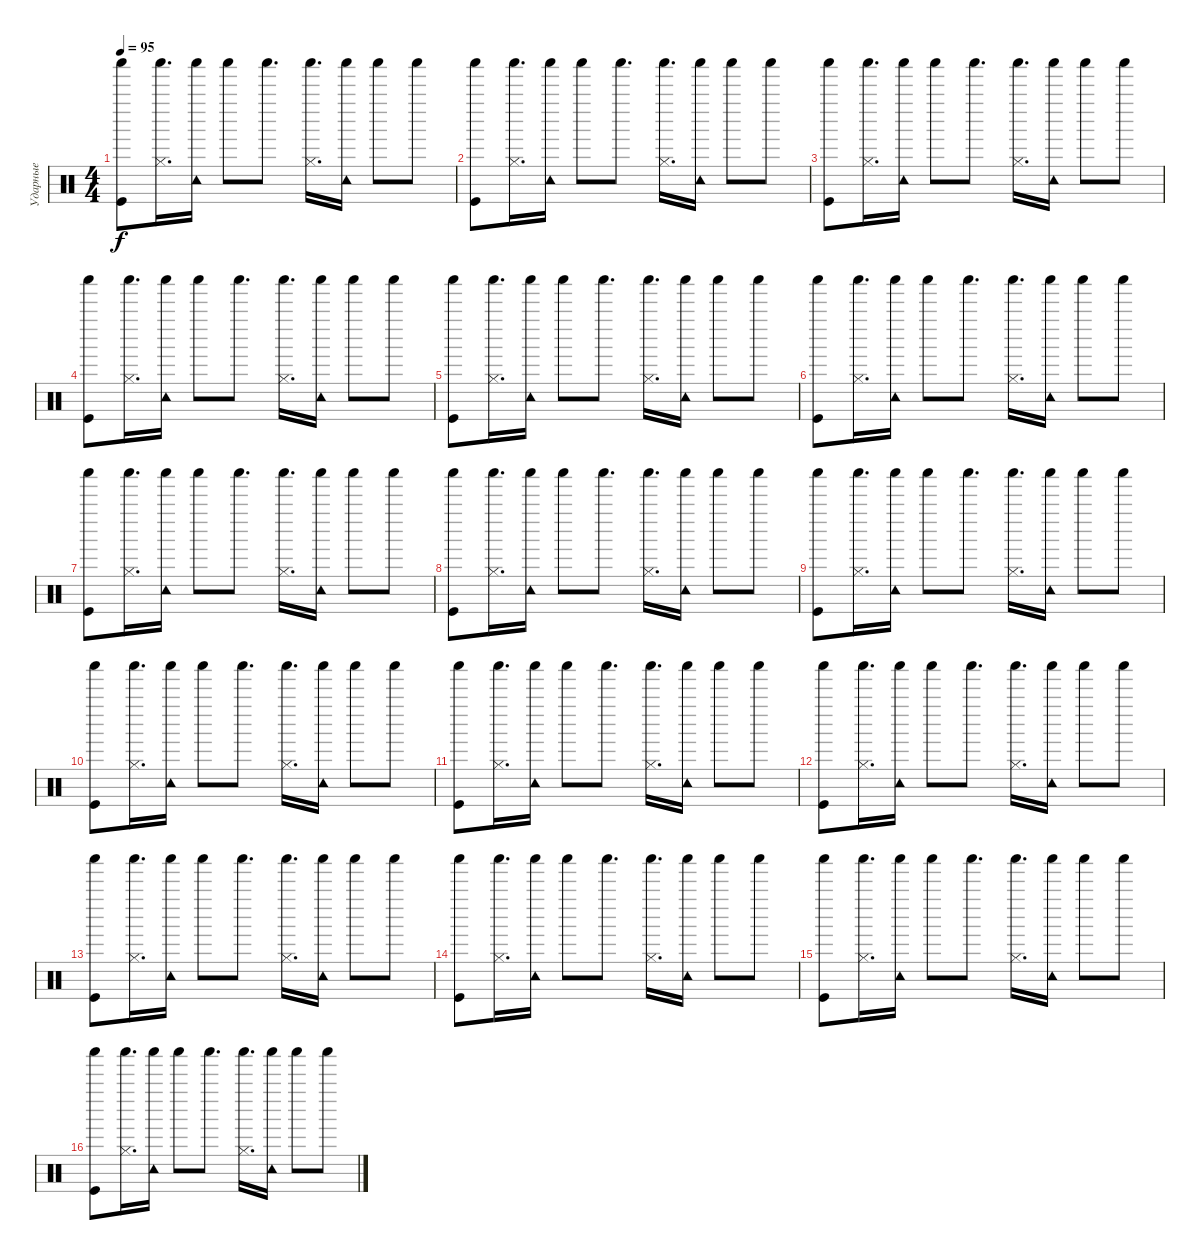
\track ("Ударные" "Ударные") {instrument percussion}
\staff {score}
\articulation defaults
\ts (4 4)
\tempo 95
\clef neutral
\ks c
("Kick (hit)" "Shaker (hit)").8{dy f} ("Hi-Hat (closed)" "Shaker (hit)").16{d} ("Tambourine (hit)" "Shaker (hit)").16 "Shaker (hit)".8 "Shaker (hit)".8{d} ("Hi-Hat (closed)" "Shaker (hit)").16{d} ("Tambourine (hit)" "Shaker (hit)").16 "Shaker (hit)".8 "Shaker (hit)".8 |
("Kick (hit)" "Shaker (hit)").8 ("Hi-Hat (closed)" "Shaker (hit)").16{d} ("Tambourine (hit)" "Shaker (hit)").16 "Shaker (hit)".8 "Shaker (hit)".8{d} ("Hi-Hat (closed)" "Shaker (hit)").16{d} ("Tambourine (hit)" "Shaker (hit)").16 "Shaker (hit)".8 "Shaker (hit)".8 |
("Kick (hit)" "Shaker (hit)").8 ("Hi-Hat (closed)" "Shaker (hit)").16{d} ("Tambourine (hit)" "Shaker (hit)").16 "Shaker (hit)".8 "Shaker (hit)".8{d} ("Hi-Hat (closed)" "Shaker (hit)").16{d} ("Tambourine (hit)" "Shaker (hit)").16 "Shaker (hit)".8 "Shaker (hit)".8 |
("Kick (hit)" "Shaker (hit)").8 ("Hi-Hat (closed)" "Shaker (hit)").16{d} ("Tambourine (hit)" "Shaker (hit)").16 "Shaker (hit)".8 "Shaker (hit)".8{d} ("Hi-Hat (closed)" "Shaker (hit)").16{d} ("Tambourine (hit)" "Shaker (hit)").16 "Shaker (hit)".8 "Shaker (hit)".8 |
("Kick (hit)" "Shaker (hit)").8 ("Hi-Hat (closed)" "Shaker (hit)").16{d} ("Tambourine (hit)" "Shaker (hit)").16 "Shaker (hit)".8 "Shaker (hit)".8{d} ("Hi-Hat (closed)" "Shaker (hit)").16{d} ("Tambourine (hit)" "Shaker (hit)").16 "Shaker (hit)".8 "Shaker (hit)".8 |
("Kick (hit)" "Shaker (hit)").8 ("Hi-Hat (closed)" "Shaker (hit)").16{d} ("Tambourine (hit)" "Shaker (hit)").16 "Shaker (hit)".8 "Shaker (hit)".8{d} ("Hi-Hat (closed)" "Shaker (hit)").16{d} ("Tambourine (hit)" "Shaker (hit)").16 "Shaker (hit)".8 "Shaker (hit)".8 |
("Kick (hit)" "Shaker (hit)").8 ("Hi-Hat (closed)" "Shaker (hit)").16{d} ("Tambourine (hit)" "Shaker (hit)").16 "Shaker (hit)".8 "Shaker (hit)".8{d} ("Hi-Hat (closed)" "Shaker (hit)").16{d} ("Tambourine (hit)" "Shaker (hit)").16 "Shaker (hit)".8 "Shaker (hit)".8 |
("Kick (hit)" "Shaker (hit)").8 ("Hi-Hat (closed)" "Shaker (hit)").16{d} ("Tambourine (hit)" "Shaker (hit)").16 "Shaker (hit)".8 "Shaker (hit)".8{d} ("Hi-Hat (closed)" "Shaker (hit)").16{d} ("Tambourine (hit)" "Shaker (hit)").16 "Shaker (hit)".8 "Shaker (hit)".8 |
("Kick (hit)" "Shaker (hit)").8 ("Hi-Hat (closed)" "Shaker (hit)").16{d} ("Tambourine (hit)" "Shaker (hit)").16 "Shaker (hit)".8 "Shaker (hit)".8{d} ("Hi-Hat (closed)" "Shaker (hit)").16{d} ("Tambourine (hit)" "Shaker (hit)").16 "Shaker (hit)".8 "Shaker (hit)".8 |
("Kick (hit)" "Shaker (hit)").8 ("Hi-Hat (closed)" "Shaker (hit)").16{d} ("Tambourine (hit)" "Shaker (hit)").16 "Shaker (hit)".8 "Shaker (hit)".8{d} ("Hi-Hat (closed)" "Shaker (hit)").16{d} ("Tambourine (hit)" "Shaker (hit)").16 "Shaker (hit)".8 "Shaker (hit)".8 |
("Kick (hit)" "Shaker (hit)").8 ("Hi-Hat (closed)" "Shaker (hit)").16{d} ("Tambourine (hit)" "Shaker (hit)").16 "Shaker (hit)".8 "Shaker (hit)".8{d} ("Hi-Hat (closed)" "Shaker (hit)").16{d} ("Tambourine (hit)" "Shaker (hit)").16 "Shaker (hit)".8 "Shaker (hit)".8 |
("Kick (hit)" "Shaker (hit)").8 ("Hi-Hat (closed)" "Shaker (hit)").16{d} ("Tambourine (hit)" "Shaker (hit)").16 "Shaker (hit)".8 "Shaker (hit)".8{d} ("Hi-Hat (closed)" "Shaker (hit)").16{d} ("Tambourine (hit)" "Shaker (hit)").16 "Shaker (hit)".8 "Shaker (hit)".8 |
("Kick (hit)" "Shaker (hit)").8 ("Hi-Hat (closed)" "Shaker (hit)").16{d} ("Tambourine (hit)" "Shaker (hit)").16 "Shaker (hit)".8 "Shaker (hit)".8{d} ("Hi-Hat (closed)" "Shaker (hit)").16{d} ("Tambourine (hit)" "Shaker (hit)").16 "Shaker (hit)".8 "Shaker (hit)".8 |
("Kick (hit)" "Shaker (hit)").8 ("Hi-Hat (closed)" "Shaker (hit)").16{d} ("Tambourine (hit)" "Shaker (hit)").16 "Shaker (hit)".8 "Shaker (hit)".8{d} ("Hi-Hat (closed)" "Shaker (hit)").16{d} ("Tambourine (hit)" "Shaker (hit)").16 "Shaker (hit)".8 "Shaker (hit)".8 |
("Kick (hit)" "Shaker (hit)").8 ("Hi-Hat (closed)" "Shaker (hit)").16{d} ("Tambourine (hit)" "Shaker (hit)").16 "Shaker (hit)".8 "Shaker (hit)".8{d} ("Hi-Hat (closed)" "Shaker (hit)").16{d} ("Tambourine (hit)" "Shaker (hit)").16 "Shaker (hit)".8 "Shaker (hit)".8 |
("Kick (hit)" "Shaker (hit)").8 ("Hi-Hat (closed)" "Shaker (hit)").16{d} ("Tambourine (hit)" "Shaker (hit)").16 "Shaker (hit)".8 "Shaker (hit)".8{d} ("Hi-Hat (closed)" "Shaker (hit)").16{d} ("Tambourine (hit)" "Shaker (hit)").16 "Shaker (hit)".8 "Shaker (hit)".8
